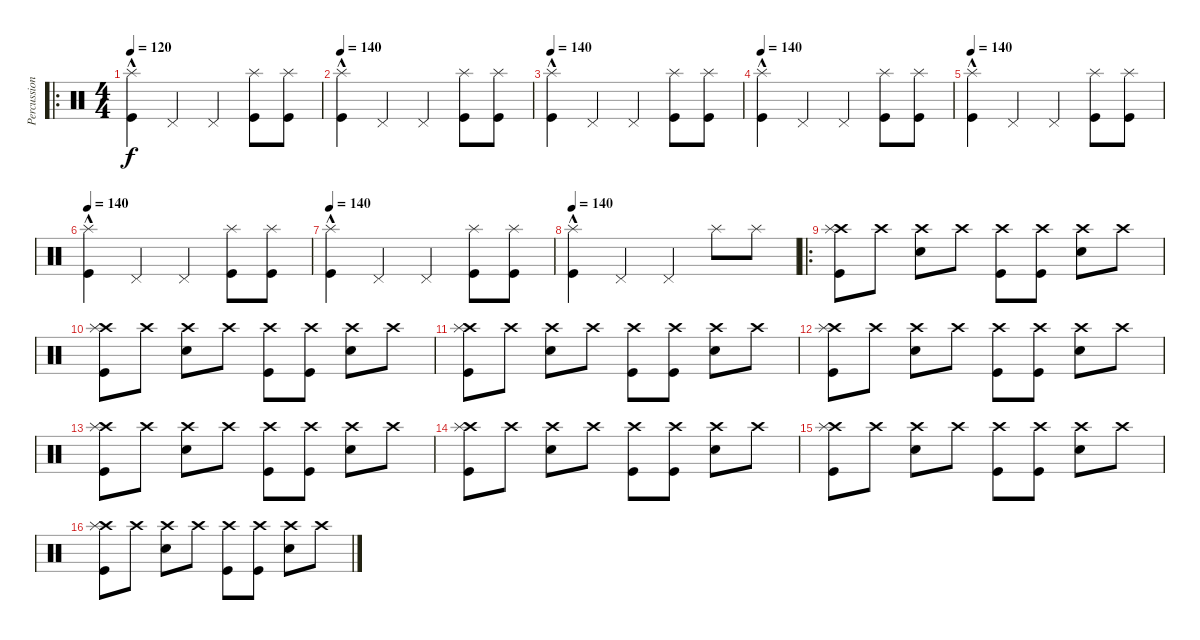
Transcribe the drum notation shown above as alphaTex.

\track ("Percussion" "Percussion") {instrument percussion}
\staff {score}
\articulation defaults
\ro
\ts (4 4)
\tempo 120
\tempo 140
\tempo 120
\clef neutral
\ks c
("Splash (hit)" "Kick (hit)"{hac}).4{dy f} "Pedal Hi-Hat (hit)".4 "Pedal Hi-Hat (hit)".4 ("Splash (hit)" "Kick (hit)").8 ("Splash (hit)" "Kick (hit)").8 |
\tempo 140
("Splash (hit)" "Kick (hit)"{hac}).4 "Pedal Hi-Hat (hit)".4 "Pedal Hi-Hat (hit)".4 ("Splash (hit)" "Kick (hit)").8 ("Splash (hit)" "Kick (hit)").8 |
\tempo 140
("Splash (hit)" "Kick (hit)"{hac}).4 "Pedal Hi-Hat (hit)".4 "Pedal Hi-Hat (hit)".4 ("Splash (hit)" "Kick (hit)").8 ("Splash (hit)" "Kick (hit)").8 |
\tempo 140
("Splash (hit)" "Kick (hit)"{hac}).4 "Pedal Hi-Hat (hit)".4 "Pedal Hi-Hat (hit)".4 ("Splash (hit)" "Kick (hit)").8 ("Splash (hit)" "Kick (hit)").8 |
\tempo 140
("Splash (hit)" "Kick (hit)"{hac}).4 "Pedal Hi-Hat (hit)".4 "Pedal Hi-Hat (hit)".4 ("Splash (hit)" "Kick (hit)").8 ("Splash (hit)" "Kick (hit)").8 |
\tempo 140
("Splash (hit)" "Kick (hit)"{hac}).4 "Pedal Hi-Hat (hit)".4 "Pedal Hi-Hat (hit)".4 ("Splash (hit)" "Kick (hit)").8 ("Splash (hit)" "Kick (hit)").8 |
\tempo 140
("Splash (hit)" "Kick (hit)"{hac}).4 "Pedal Hi-Hat (hit)".4 "Pedal Hi-Hat (hit)".4 ("Splash (hit)" "Kick (hit)").8 ("Splash (hit)" "Kick (hit)").8 |
\tempo 140
("Splash (hit)" "Kick (hit)"{hac}).4 "Pedal Hi-Hat (hit)".4 "Pedal Hi-Hat (hit)".4 "Splash (hit)".8 "Splash (hit)".8 |
\ro
("Crash high (hit)" "Kick (hit)" "Splash (hit)").8 "Crash high (hit)".8 ("Crash high (hit)" "Snare (hit) 2").8 "Crash high (hit)".8 ("Crash high (hit)" "Kick (hit)").8 ("Crash high (hit)" "Kick (hit)").8 ("Crash high (hit)" "Snare (hit) 2").8 "Crash high (hit)".8 |
("Crash high (hit)" "Kick (hit)" "Splash (hit)").8 "Crash high (hit)".8 ("Crash high (hit)" "Snare (hit) 2").8 "Crash high (hit)".8 ("Crash high (hit)" "Kick (hit)").8 ("Crash high (hit)" "Kick (hit)").8 ("Crash high (hit)" "Snare (hit) 2").8 "Crash high (hit)".8 |
("Crash high (hit)" "Kick (hit)" "Splash (hit)").8 "Crash high (hit)".8 ("Crash high (hit)" "Snare (hit) 2").8 "Crash high (hit)".8 ("Crash high (hit)" "Kick (hit)").8 ("Crash high (hit)" "Kick (hit)").8 ("Crash high (hit)" "Snare (hit) 2").8 "Crash high (hit)".8 |
("Crash high (hit)" "Kick (hit)" "Splash (hit)").8 "Crash high (hit)".8 ("Crash high (hit)" "Snare (hit) 2").8 "Crash high (hit)".8 ("Crash high (hit)" "Kick (hit)").8 ("Crash high (hit)" "Kick (hit)").8 ("Crash high (hit)" "Snare (hit) 2").8 "Crash high (hit)".8 |
("Crash high (hit)" "Kick (hit)" "Splash (hit)").8 "Crash high (hit)".8 ("Crash high (hit)" "Snare (hit) 2").8 "Crash high (hit)".8 ("Crash high (hit)" "Kick (hit)").8 ("Crash high (hit)" "Kick (hit)").8 ("Crash high (hit)" "Snare (hit) 2").8 "Crash high (hit)".8 |
("Crash high (hit)" "Kick (hit)" "Splash (hit)").8 "Crash high (hit)".8 ("Crash high (hit)" "Snare (hit) 2").8 "Crash high (hit)".8 ("Crash high (hit)" "Kick (hit)").8 ("Crash high (hit)" "Kick (hit)").8 ("Crash high (hit)" "Snare (hit) 2").8 "Crash high (hit)".8 |
("Crash high (hit)" "Kick (hit)" "Splash (hit)").8 "Crash high (hit)".8 ("Crash high (hit)" "Snare (hit) 2").8 "Crash high (hit)".8 ("Crash high (hit)" "Kick (hit)").8 ("Crash high (hit)" "Kick (hit)").8 ("Crash high (hit)" "Snare (hit) 2").8 "Crash high (hit)".8 |
("Crash high (hit)" "Kick (hit)" "Splash (hit)").8 "Crash high (hit)".8 ("Crash high (hit)" "Snare (hit) 2").8 "Crash high (hit)".8 ("Crash high (hit)" "Kick (hit)").8 ("Crash high (hit)" "Kick (hit)").8 ("Crash high (hit)" "Snare (hit) 2").8 "Crash high (hit)".8
